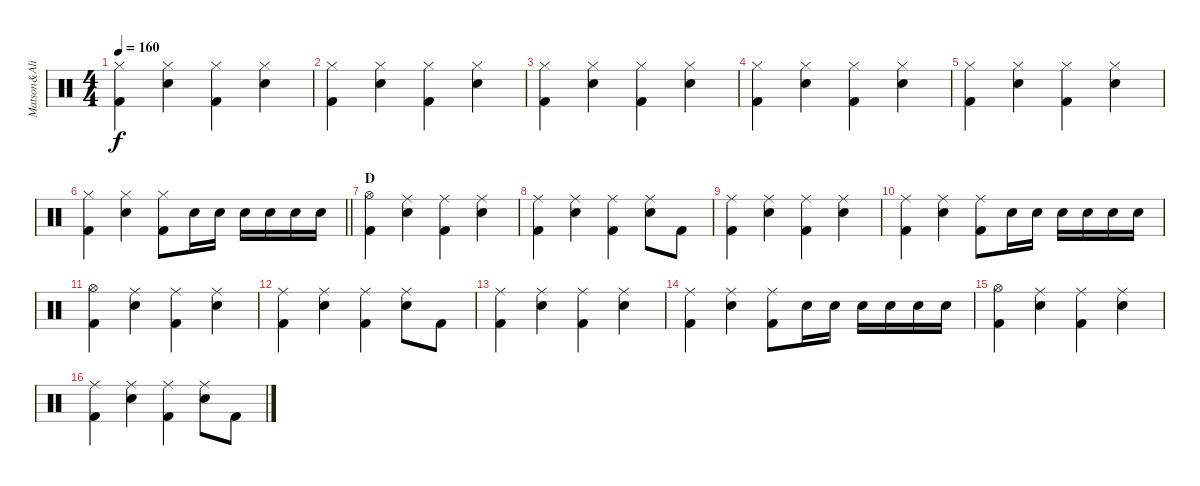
\track ("Matson&Ali" "Matson&Ali") {instrument percussion}
\staff {score}
\articulation defaults
\ts (4 4)
\tempo 160
\clef neutral
\ks c
("Hi-Hat (closed)" "Kick (hit) 2").4{dy f} ("Hi-Hat (closed)" "Snare (hit) 2").4 ("Hi-Hat (closed)" "Kick (hit) 2").4 ("Hi-Hat (closed)" "Snare (hit) 2").4 |
("Hi-Hat (closed)" "Kick (hit) 2").4 ("Hi-Hat (closed)" "Snare (hit) 2").4 ("Hi-Hat (closed)" "Kick (hit) 2").4 ("Hi-Hat (closed)" "Snare (hit) 2").4 |
("Hi-Hat (closed)" "Kick (hit) 2").4 ("Hi-Hat (closed)" "Snare (hit) 2").4 ("Hi-Hat (closed)" "Kick (hit) 2").4 ("Hi-Hat (closed)" "Snare (hit) 2").4 |
("Hi-Hat (closed)" "Kick (hit) 2").4 ("Hi-Hat (closed)" "Snare (hit) 2").4 ("Hi-Hat (closed)" "Kick (hit) 2").4 ("Hi-Hat (closed)" "Snare (hit) 2").4 |
("Hi-Hat (closed)" "Kick (hit) 2").4 ("Hi-Hat (closed)" "Snare (hit) 2").4 ("Hi-Hat (closed)" "Kick (hit) 2").4 ("Hi-Hat (closed)" "Snare (hit) 2").4 |
\barLineRight lightlight
("Hi-Hat (closed)" "Kick (hit) 2").4 ("Hi-Hat (closed)" "Snare (hit) 2").4 ("Hi-Hat (closed)" "Kick (hit) 2").8 "Snare (hit) 2".16 "Snare (hit) 2".16 "Snare (hit) 2".16 "Snare (hit) 2".16 "Snare (hit) 2".16 "Snare (hit) 2".16 |
\section ("" "D")
("Hi-Hat (open)" "Kick (hit) 2").4 ("Ride (middle)" "Snare (hit) 2").4 ("Ride (middle)" "Kick (hit) 2").4 ("Ride (middle)" "Snare (hit) 2").4 |
("Ride (middle)" "Kick (hit) 2").4 ("Ride (middle)" "Snare (hit) 2").4 ("Ride (middle)" "Kick (hit) 2").4 ("Ride (middle)" "Snare (hit) 2").8 "Kick (hit) 2".8 |
("Ride (middle)" "Kick (hit) 2").4 ("Ride (middle)" "Snare (hit) 2").4 ("Ride (middle)" "Kick (hit) 2").4 ("Ride (middle)" "Snare (hit) 2").4 |
("Ride (middle)" "Kick (hit) 2").4 ("Ride (middle)" "Snare (hit) 2").4 ("Ride (middle)" "Kick (hit) 2").8 "Snare (hit) 2".16 "Snare (hit) 2".16 "Snare (hit) 2".16 "Snare (hit) 2".16 "Snare (hit) 2".16 "Snare (hit) 2".16 |
("Hi-Hat (open)" "Kick (hit) 2").4 ("Ride (middle)" "Snare (hit) 2").4 ("Ride (middle)" "Kick (hit) 2").4 ("Ride (middle)" "Snare (hit) 2").4 |
("Ride (middle)" "Kick (hit) 2").4 ("Ride (middle)" "Snare (hit) 2").4 ("Ride (middle)" "Kick (hit) 2").4 ("Ride (middle)" "Snare (hit) 2").8 "Kick (hit) 2".8 |
("Ride (middle)" "Kick (hit) 2").4 ("Ride (middle)" "Snare (hit) 2").4 ("Ride (middle)" "Kick (hit) 2").4 ("Ride (middle)" "Snare (hit) 2").4 |
("Ride (middle)" "Kick (hit) 2").4 ("Ride (middle)" "Snare (hit) 2").4 ("Ride (middle)" "Kick (hit) 2").8 "Snare (hit) 2".16 "Snare (hit) 2".16 "Snare (hit) 2".16 "Snare (hit) 2".16 "Snare (hit) 2".16 "Snare (hit) 2".16 |
("Hi-Hat (open)" "Kick (hit) 2").4 ("Ride (middle)" "Snare (hit) 2").4 ("Ride (middle)" "Kick (hit) 2").4 ("Ride (middle)" "Snare (hit) 2").4 |
("Ride (middle)" "Kick (hit) 2").4 ("Ride (middle)" "Snare (hit) 2").4 ("Ride (middle)" "Kick (hit) 2").4 ("Ride (middle)" "Snare (hit) 2").8 "Kick (hit) 2".8
